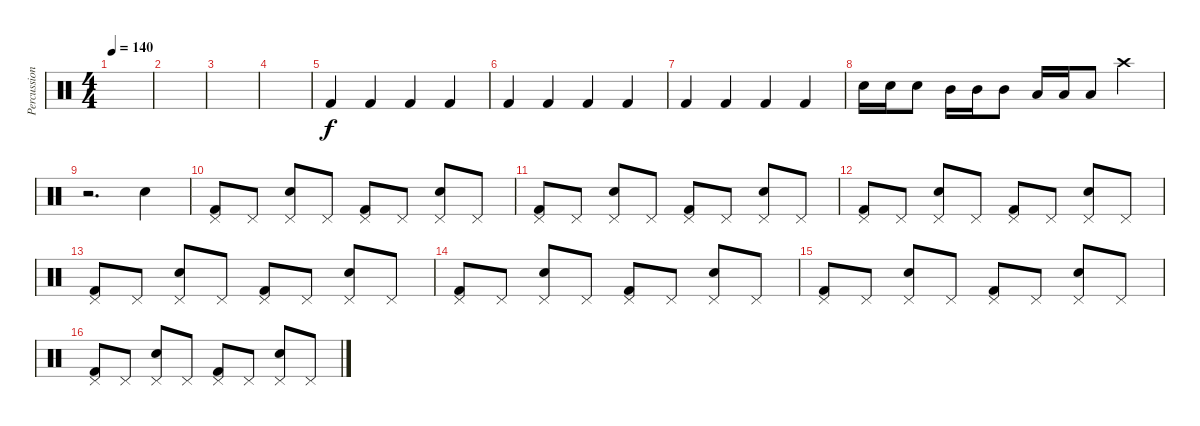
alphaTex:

\track ("Percussion" "Percussion") {instrument percussion}
\staff {score}
\articulation defaults
\ts (4 4)
\tempo 140
\clef neutral
\ks c
|
|
|
|
"Kick (hit) 2".4 "Kick (hit) 2".4 "Kick (hit) 2".4 "Kick (hit) 2".4 |
"Kick (hit) 2".4 "Kick (hit) 2".4 "Kick (hit) 2".4 "Kick (hit) 2".4 |
"Kick (hit) 2".4 "Kick (hit) 2".4 "Kick (hit) 2".4 "Kick (hit) 2".4 |
"Electric Snare (hit)".16 "Electric Snare (hit)".16 "Electric Snare (hit)".8 "Mid Tom (hit)".16 "Mid Tom (hit)".16 "Mid Tom (hit)".8 "Low Tom (hit)".16 "Low Tom (hit)".16 "Low Tom (hit)".8 "Crash high (hit)".4 |
r.2{d} "Electric Snare (hit)".4 |
("Kick (hit) 2" "Pedal Hi-Hat (hit)").8 "Pedal Hi-Hat (hit)".8 ("Electric Snare (hit)" "Pedal Hi-Hat (hit)").8 "Pedal Hi-Hat (hit)".8 ("Kick (hit) 2" "Pedal Hi-Hat (hit)").8 "Pedal Hi-Hat (hit)".8 ("Electric Snare (hit)" "Pedal Hi-Hat (hit)").8 "Pedal Hi-Hat (hit)".8 |
("Kick (hit) 2" "Pedal Hi-Hat (hit)").8 "Pedal Hi-Hat (hit)".8 ("Electric Snare (hit)" "Pedal Hi-Hat (hit)").8 "Pedal Hi-Hat (hit)".8 ("Kick (hit) 2" "Pedal Hi-Hat (hit)").8 "Pedal Hi-Hat (hit)".8 ("Electric Snare (hit)" "Pedal Hi-Hat (hit)").8 "Pedal Hi-Hat (hit)".8 |
("Kick (hit) 2" "Pedal Hi-Hat (hit)").8 "Pedal Hi-Hat (hit)".8 ("Electric Snare (hit)" "Pedal Hi-Hat (hit)").8 "Pedal Hi-Hat (hit)".8 ("Kick (hit) 2" "Pedal Hi-Hat (hit)").8 "Pedal Hi-Hat (hit)".8 ("Electric Snare (hit)" "Pedal Hi-Hat (hit)").8 "Pedal Hi-Hat (hit)".8 |
("Kick (hit) 2" "Pedal Hi-Hat (hit)").8 "Pedal Hi-Hat (hit)".8 ("Electric Snare (hit)" "Pedal Hi-Hat (hit)").8 "Pedal Hi-Hat (hit)".8 ("Kick (hit) 2" "Pedal Hi-Hat (hit)").8 "Pedal Hi-Hat (hit)".8 ("Electric Snare (hit)" "Pedal Hi-Hat (hit)").8 "Pedal Hi-Hat (hit)".8 |
("Kick (hit) 2" "Pedal Hi-Hat (hit)").8 "Pedal Hi-Hat (hit)".8 ("Electric Snare (hit)" "Pedal Hi-Hat (hit)").8 "Pedal Hi-Hat (hit)".8 ("Kick (hit) 2" "Pedal Hi-Hat (hit)").8 "Pedal Hi-Hat (hit)".8 ("Electric Snare (hit)" "Pedal Hi-Hat (hit)").8 "Pedal Hi-Hat (hit)".8 |
("Kick (hit) 2" "Pedal Hi-Hat (hit)").8 "Pedal Hi-Hat (hit)".8 ("Electric Snare (hit)" "Pedal Hi-Hat (hit)").8 "Pedal Hi-Hat (hit)".8 ("Kick (hit) 2" "Pedal Hi-Hat (hit)").8 "Pedal Hi-Hat (hit)".8 ("Electric Snare (hit)" "Pedal Hi-Hat (hit)").8 "Pedal Hi-Hat (hit)".8 |
("Kick (hit) 2" "Pedal Hi-Hat (hit)").8 "Pedal Hi-Hat (hit)".8 ("Electric Snare (hit)" "Pedal Hi-Hat (hit)").8 "Pedal Hi-Hat (hit)".8 ("Kick (hit) 2" "Pedal Hi-Hat (hit)").8 "Pedal Hi-Hat (hit)".8 ("Electric Snare (hit)" "Pedal Hi-Hat (hit)").8 "Pedal Hi-Hat (hit)".8
